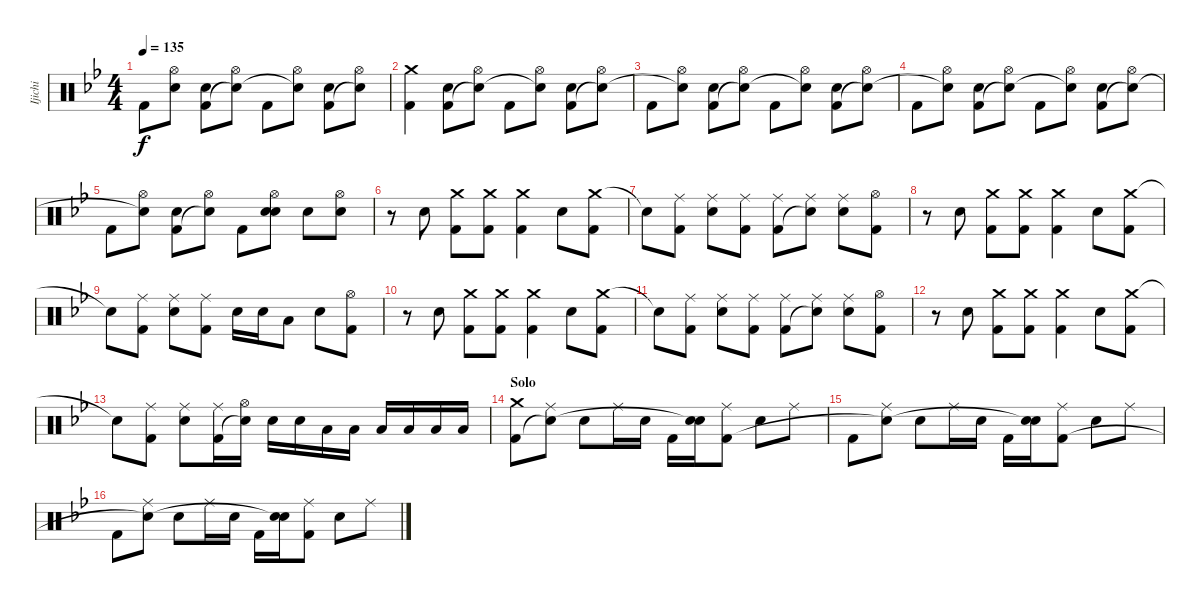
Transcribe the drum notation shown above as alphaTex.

\track ("Ijichi" "Ijichi") {instrument percussion}
\staff {score}
\articulation defaults
\ts (4 4)
\tempo 135
\clef neutral
\ks bb "Kick (hit) 2".8{dy f}
("Hi-Hat (open)" "Snare (hit)"{t}).8 ("Electric Snare (hit)" "Kick (hit) 2").8 ("Hi-Hat (open)" "Snare (hit)"{t}).8 "Kick (hit) 2".8 ("Hi-Hat (open)" "Snare (hit)"{t}).8 ("Electric Snare (hit)" "Kick (hit) 2").8 ("Hi-Hat (open)" "Snare (hit)"{t}).8 |
("Crash medium (hit)" "Kick (hit) 2").4 ("Electric Snare (hit)" "Kick (hit) 2").8 ("Hi-Hat (open)" "Snare (hit)"{t}).8 "Kick (hit) 2".8 ("Hi-Hat (open)" "Snare (hit)"{t}).8 ("Electric Snare (hit)" "Kick (hit) 2").8 ("Hi-Hat (open)" "Snare (hit)"{t}).8 |
"Kick (hit) 2".8 ("Hi-Hat (open)" "Snare (hit)"{t}).8 ("Electric Snare (hit)" "Kick (hit) 2").8 ("Hi-Hat (open)" "Snare (hit)"{t}).8 "Kick (hit) 2".8 ("Hi-Hat (open)" "Snare (hit)"{t}).8 ("Electric Snare (hit)" "Kick (hit) 2").8 ("Hi-Hat (open)" "Snare (hit)"{t}).8 |
"Kick (hit) 2".8 ("Hi-Hat (open)" "Snare (hit)"{t}).8 ("Electric Snare (hit)" "Kick (hit) 2").8 ("Hi-Hat (open)" "Snare (hit)"{t}).8 "Kick (hit) 2".8 ("Hi-Hat (open)" "Snare (hit)"{t}).8 ("Electric Snare (hit)" "Kick (hit) 2").8 ("Hi-Hat (open)" "Snare (hit)"{t}).8 |
"Kick (hit) 2".8 ("Hi-Hat (open)" "Snare (hit)"{t}).8 ("Electric Snare (hit)" "Kick (hit) 2").8 ("Hi-Hat (open)" "Snare (hit)"{t}).8 "Kick (hit) 2".8 ("Hi-Hat (open)" "Electric Snare (hit)" "Snare (hit)").8 "Electric Snare (hit)".8 ("Hi-Hat (open)" "Electric Snare (hit)").8 |
r.8 "Electric Snare (hit)".8 ("Crash medium (hit)" "Kick (hit) 2").8 ("Crash medium (hit)" "Kick (hit) 2").8 ("Crash medium (hit)" "Kick (hit) 2").4 "Electric Snare (hit)".8 ("Crash medium (hit)" "Kick (hit) 2").8 |
"Snare (hit)"{t}.8 ("Ride (middle)" "Kick (hit) 2").8 ("Ride (middle)" "Electric Snare (hit)").8 ("Ride (middle)" "Kick (hit) 2").8 ("Ride (middle)" "Kick (hit) 2").8 ("Ride (middle)" "Snare (hit)"{t}).8 ("Ride (middle)" "Electric Snare (hit)").8 ("Hi-Hat (open)" "Kick (hit) 2").8 |
r.8 "Electric Snare (hit)".8 ("Crash medium (hit)" "Kick (hit) 2").8 ("Crash medium (hit)" "Kick (hit) 2").8 ("Crash medium (hit)" "Kick (hit) 2").4 "Electric Snare (hit)".8 ("Crash medium (hit)" "Kick (hit) 2").8 |
"Snare (hit)"{t}.8 ("Ride (middle)" "Kick (hit) 2").8 ("Ride (middle)" "Electric Snare (hit)").8 ("Ride (middle)" "Kick (hit) 2").8 "Electric Snare (hit)".16 "Electric Snare (hit)".16 "Low Floor Tom (hit)".8 "Electric Snare (hit)".8 ("Hi-Hat (open)" "Kick (hit) 2").8 |
r.8 "Electric Snare (hit)".8 ("Crash medium (hit)" "Kick (hit) 2").8 ("Crash medium (hit)" "Kick (hit) 2").8 ("Crash medium (hit)" "Kick (hit) 2").4 "Electric Snare (hit)".8 ("Crash medium (hit)" "Kick (hit) 2").8 |
"Snare (hit)"{t}.8 ("Ride (middle)" "Kick (hit) 2").8 ("Ride (middle)" "Electric Snare (hit)").8 ("Ride (middle)" "Kick (hit) 2").8 ("Ride (middle)" "Kick (hit) 2").8 ("Ride (middle)" "Snare (hit)"{t}).8 ("Ride (middle)" "Electric Snare (hit)").8 ("Hi-Hat (open)" "Kick (hit) 2").8 |
r.8 "Electric Snare (hit)".8 ("Crash medium (hit)" "Kick (hit) 2").8 ("Crash medium (hit)" "Kick (hit) 2").8 ("Crash medium (hit)" "Kick (hit) 2").4 "Electric Snare (hit)".8 ("Crash medium (hit)" "Kick (hit) 2").8 |
"Snare (hit)"{t}.8 ("Ride (middle)" "Kick (hit) 2").8 ("Ride (middle)" "Electric Snare (hit)").8 ("Ride (middle)" "Kick (hit) 2").16 ("Hi-Hat (open)" "Snare (hit)"{t}).16 "Electric Snare (hit)".16 "Electric Snare (hit)".16 "Low Tom (hit)".16 "Low Tom (hit)".16 "Low Floor Tom (hit)".16 "Low Floor Tom (hit)".16 "Low Floor Tom (hit)".16 "Low Floor Tom (hit)".16 |
\section ("" "Solo")
("Crash medium (hit)" "Kick (hit) 2").8 ("Ride (middle)" "Snare (hit)"{t}).8 "Electric Snare (hit)".8 "Ride (middle)".16 "Electric Snare (hit)".16 "Kick (hit) 2".16 ("Electric Snare (hit)" "Snare (hit)"{t}).16 ("Ride (middle)" "Kick (hit) 2").8 "Electric Snare (hit)".8 "Ride (middle)".8 |
"Kick (hit) 2".8 ("Ride (middle)" "Snare (hit)"{t}).8 "Electric Snare (hit)".8 "Ride (middle)".16 "Electric Snare (hit)".16 "Kick (hit) 2".16 ("Electric Snare (hit)" "Snare (hit)"{t}).16 ("Ride (middle)" "Kick (hit) 2").8 "Electric Snare (hit)".8 "Ride (middle)".8 |
"Kick (hit) 2".8 ("Ride (middle)" "Snare (hit)"{t}).8 "Electric Snare (hit)".8 "Ride (middle)".16 "Electric Snare (hit)".16 "Kick (hit) 2".16 ("Electric Snare (hit)" "Snare (hit)"{t}).16 ("Ride (middle)" "Kick (hit) 2").8 "Electric Snare (hit)".8 "Ride (middle)".8
